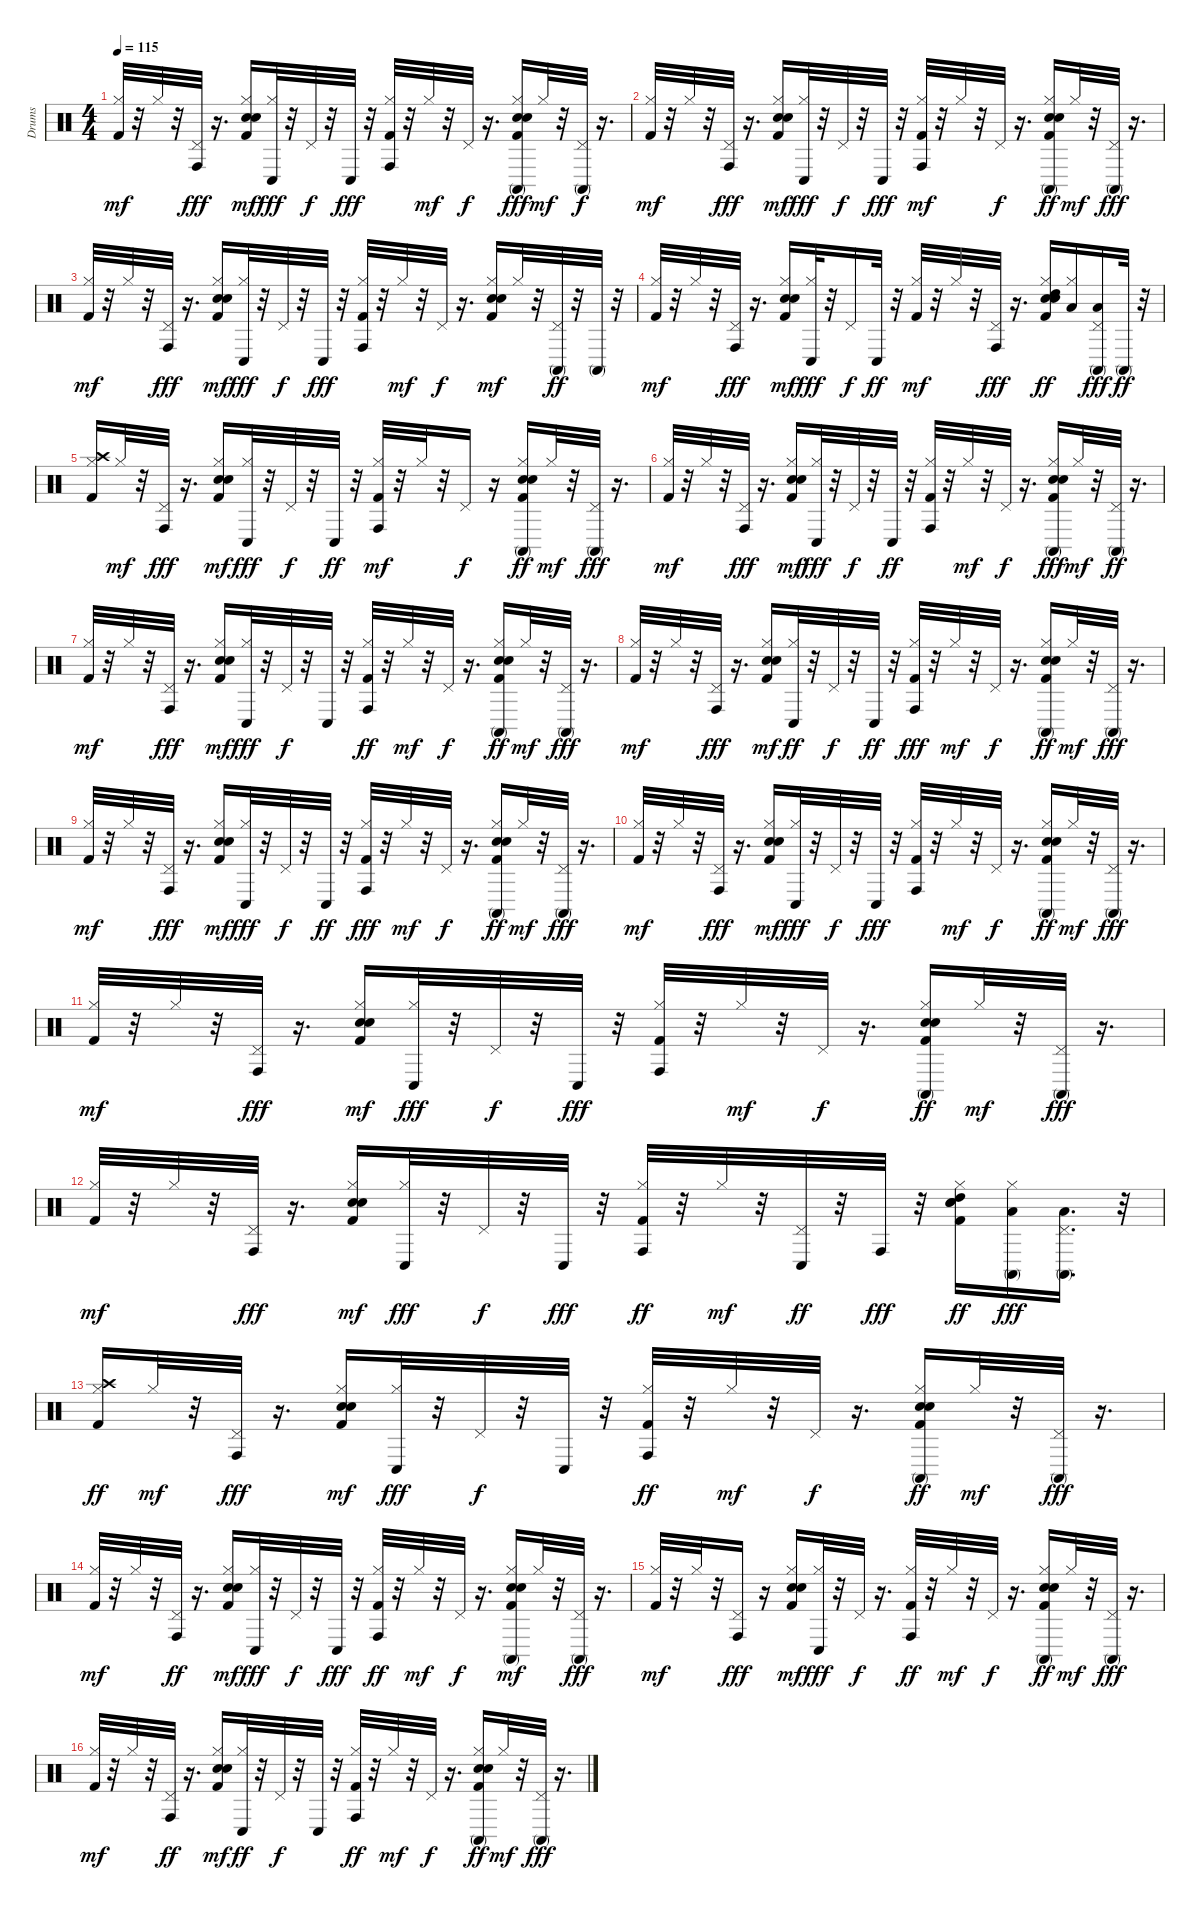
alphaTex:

\track ("Drums" "Drums") {instrument percussion}
\staff {score}
\articulation defaults
\ts (4 4)
\tempo 115
\clef neutral
\ks c
("Kick (hit) 2" "Hi-Hat (closed)").32{dy mf} r.32 "Hi-Hat (closed)".32 r.32 ("Pedal Hi-Hat (hit)" "Conga high (hit)").32{dy fff} r.16{d} ("Kick (hit) 2" "Snare (hit) 2" "Hand Clap (hit)" "Hi-Hat (closed)").16{dy mf} ("Hi-Hat (closed)" "Conga low (hit)").32{dy fff} r.32 "Pedal Hi-Hat (hit)".32{dy f} r.32 "Conga low (hit)".32{dy fff} r.32 ("Kick (hit) 2" "Hi-Hat (closed)" "Conga high (hit)").32 r.32 "Hi-Hat (closed)".32{dy mf} r.32 "Pedal Hi-Hat (hit)".32{dy f} r.16{d} ("Kick (hit) 2" "Snare (hit) 2" "Hand Clap (hit)" "Hi-Hat (closed)" "Conga high (mute)").16{dy fff} "Hi-Hat (closed)".32{dy mf} r.32 ("Pedal Hi-Hat (hit)" "Conga high (mute)").32{dy f} r.16{d} |
("Kick (hit) 2" "Hi-Hat (closed)").32{dy mf} r.32 "Hi-Hat (closed)".32 r.32 ("Pedal Hi-Hat (hit)" "Conga high (hit)").32{dy fff} r.16{d} ("Kick (hit) 2" "Snare (hit) 2" "Hand Clap (hit)" "Hi-Hat (closed)").16{dy mf} ("Hi-Hat (closed)" "Conga low (hit)").32{dy fff} r.32 "Pedal Hi-Hat (hit)".32{dy f} r.32 "Conga low (hit)".32{dy fff} r.32 ("Kick (hit) 2" "Hi-Hat (closed)" "Conga high (hit)").32{dy mf} r.32 "Hi-Hat (closed)".32 r.32 "Pedal Hi-Hat (hit)".32{dy f} r.16{d} ("Kick (hit) 2" "Snare (hit) 2" "Hand Clap (hit)" "Hi-Hat (closed)" "Conga high (mute)").16{dy ff} "Hi-Hat (closed)".32{dy mf} r.32 ("Pedal Hi-Hat (hit)" "Conga high (mute)").32{dy fff} r.16{d} |
("Kick (hit) 2" "Hi-Hat (closed)").32{dy mf} r.32 "Hi-Hat (closed)".32 r.32 ("Pedal Hi-Hat (hit)" "Conga high (hit)").32{dy fff} r.16{d} ("Kick (hit) 2" "Snare (hit) 2" "Hand Clap (hit)" "Hi-Hat (closed)").16{dy mf} ("Hi-Hat (closed)" "Conga low (hit)").32{dy fff} r.32 "Pedal Hi-Hat (hit)".32{dy f} r.32 "Conga low (hit)".32{dy fff} r.32 ("Kick (hit) 2" "Hi-Hat (closed)" "Conga high (hit)").32 r.32 "Hi-Hat (closed)".32{dy mf} r.32 "Pedal Hi-Hat (hit)".32{dy f} r.16{d} ("Kick (hit) 2" "Snare (hit) 2" "Hand Clap (hit)" "Hi-Hat (closed)").16{dy mf} "Hi-Hat (closed)".32 r.32 ("Pedal Hi-Hat (hit)" "Conga high (mute)").32{dy ff} r.32 "Conga high (mute)".32 r.32 |
("Kick (hit) 2" "Hi-Hat (closed)").32{dy mf} r.32 "Hi-Hat (closed)".32 r.32 ("Pedal Hi-Hat (hit)" "Conga high (hit)").32{dy fff} r.16{d} ("Kick (hit) 2" "Snare (hit) 2" "Hand Clap (hit)" "Hi-Hat (closed)").16{dy mf} ("Hi-Hat (closed)" "Conga low (hit)").32{dy fff} r.32 "Pedal Hi-Hat (hit)".16{dy f} "Conga low (hit)".32{dy ff} r.32 ("Kick (hit) 2" "Hi-Hat (closed)").32{dy mf} r.32 "Hi-Hat (closed)".32 r.32 ("Pedal Hi-Hat (hit)" "Conga high (hit)").32{dy fff} r.16{d} ("Kick (hit) 2" "Snare (hit) 2" "Hand Clap (hit)" "Hi-Hat (closed)" "High Tom (hit)").16{dy ff} ("Hi-Hat (closed)" "Low Tom (hit)").16 ("Pedal Hi-Hat (hit)" "Low Floor Tom (hit)" "Conga high (mute)").16{dy fff} "Conga high (mute)".32{dy ff} r.32 |
("Kick (hit) 2" "Hi-Hat (closed)" "Crash high (hit)").16 "Hi-Hat (closed)".32{dy mf} r.32 ("Pedal Hi-Hat (hit)" "Conga high (hit)").32{dy fff} r.16{d} ("Kick (hit) 2" "Snare (hit) 2" "Hand Clap (hit)" "Hi-Hat (closed)").16{dy mf} ("Hi-Hat (closed)" "Conga low (hit)").32{dy fff} r.32 "Pedal Hi-Hat (hit)".32{dy f} r.32 "Conga low (hit)".32{dy ff} r.32 ("Kick (hit) 2" "Hi-Hat (closed)" "Conga high (hit)").32{dy mf} r.32 "Hi-Hat (closed)".32 r.32 "Pedal Hi-Hat (hit)".16{dy f} r.16 ("Kick (hit) 2" "Snare (hit) 2" "Hand Clap (hit)" "Hi-Hat (closed)" "Conga high (mute)").16{dy ff} "Hi-Hat (closed)".32{dy mf} r.32 ("Pedal Hi-Hat (hit)" "Conga high (mute)").32{dy fff} r.16{d} |
("Kick (hit) 2" "Hi-Hat (closed)").32{dy mf} r.32 "Hi-Hat (closed)".32 r.32 ("Pedal Hi-Hat (hit)" "Conga high (hit)").32{dy fff} r.16{d} ("Kick (hit) 2" "Snare (hit) 2" "Hand Clap (hit)" "Hi-Hat (closed)").16{dy mf} ("Hi-Hat (closed)" "Conga low (hit)").32{dy fff} r.32 "Pedal Hi-Hat (hit)".32{dy f} r.32 "Conga low (hit)".32{dy ff} r.32 ("Kick (hit) 2" "Hi-Hat (closed)" "Conga high (hit)").32 r.32 "Hi-Hat (closed)".32{dy mf} r.32 "Pedal Hi-Hat (hit)".32{dy f} r.16{d} ("Kick (hit) 2" "Snare (hit) 2" "Hand Clap (hit)" "Hi-Hat (closed)" "Conga high (mute)").16{dy fff} "Hi-Hat (closed)".32{dy mf} r.32 ("Pedal Hi-Hat (hit)" "Conga high (mute)").32{dy ff} r.16{d} |
("Kick (hit) 2" "Hi-Hat (closed)").32{dy mf} r.32 "Hi-Hat (closed)".32 r.32 ("Pedal Hi-Hat (hit)" "Conga high (hit)").32{dy fff} r.16{d} ("Kick (hit) 2" "Snare (hit) 2" "Hand Clap (hit)" "Hi-Hat (closed)").16{dy mf} ("Hi-Hat (closed)" "Conga low (hit)").32{dy fff} r.32 "Pedal Hi-Hat (hit)".32{dy f} r.32 "Conga low (hit)".32 r.32 ("Kick (hit) 2" "Hi-Hat (closed)" "Conga high (hit)").32{dy ff} r.32 "Hi-Hat (closed)".32{dy mf} r.32 "Pedal Hi-Hat (hit)".32{dy f} r.16{d} ("Kick (hit) 2" "Snare (hit) 2" "Hand Clap (hit)" "Hi-Hat (closed)" "Conga high (mute)").16{dy ff} "Hi-Hat (closed)".32{dy mf} r.32 ("Pedal Hi-Hat (hit)" "Conga high (mute)").32{dy fff} r.16{d} |
("Kick (hit) 2" "Hi-Hat (closed)").32{dy mf} r.32 "Hi-Hat (closed)".32 r.32 ("Pedal Hi-Hat (hit)" "Conga high (hit)").32{dy fff} r.16{d} ("Kick (hit) 2" "Snare (hit) 2" "Hand Clap (hit)" "Hi-Hat (closed)").16{dy mf} ("Hi-Hat (closed)" "Conga low (hit)").32{dy ff} r.32 "Pedal Hi-Hat (hit)".32{dy f} r.32 "Conga low (hit)".32{dy ff} r.32 ("Kick (hit) 2" "Hi-Hat (closed)" "Conga high (hit)").32{dy fff} r.32 "Hi-Hat (closed)".32{dy mf} r.32 "Pedal Hi-Hat (hit)".32{dy f} r.16{d} ("Kick (hit) 2" "Snare (hit) 2" "Hand Clap (hit)" "Hi-Hat (closed)" "Conga high (mute)").16{dy ff} "Hi-Hat (closed)".32{dy mf} r.32 ("Pedal Hi-Hat (hit)" "Conga high (mute)").32{dy fff} r.16{d} |
("Kick (hit) 2" "Hi-Hat (closed)").32{dy mf} r.32 "Hi-Hat (closed)".32 r.32 ("Pedal Hi-Hat (hit)" "Conga high (hit)").32{dy fff} r.16{d} ("Kick (hit) 2" "Snare (hit) 2" "Hand Clap (hit)" "Hi-Hat (closed)").16{dy mf} ("Hi-Hat (closed)" "Conga low (hit)").32{dy fff} r.32 "Pedal Hi-Hat (hit)".32{dy f} r.32 "Conga low (hit)".32{dy ff} r.32 ("Kick (hit) 2" "Hi-Hat (closed)" "Conga high (hit)").32{dy fff} r.32 "Hi-Hat (closed)".32{dy mf} r.32 "Pedal Hi-Hat (hit)".32{dy f} r.16{d} ("Kick (hit) 2" "Snare (hit) 2" "Hand Clap (hit)" "Hi-Hat (closed)" "Conga high (mute)").16{dy ff} "Hi-Hat (closed)".32{dy mf} r.32 ("Pedal Hi-Hat (hit)" "Conga high (mute)").32{dy fff} r.16{d} |
("Kick (hit) 2" "Hi-Hat (closed)").32{dy mf} r.32 "Hi-Hat (closed)".32 r.32 ("Pedal Hi-Hat (hit)" "Conga high (hit)").32{dy fff} r.16{d} ("Kick (hit) 2" "Snare (hit) 2" "Hand Clap (hit)" "Hi-Hat (closed)").16{dy mf} ("Hi-Hat (closed)" "Conga low (hit)").32{dy fff} r.32 "Pedal Hi-Hat (hit)".32{dy f} r.32 "Conga low (hit)".32{dy fff} r.32 ("Kick (hit) 2" "Hi-Hat (closed)" "Conga high (hit)").32 r.32 "Hi-Hat (closed)".32{dy mf} r.32 "Pedal Hi-Hat (hit)".32{dy f} r.16{d} ("Kick (hit) 2" "Snare (hit) 2" "Hand Clap (hit)" "Hi-Hat (closed)" "Conga high (mute)").16{dy ff} "Hi-Hat (closed)".32{dy mf} r.32 ("Pedal Hi-Hat (hit)" "Conga high (mute)").32{dy fff} r.16{d} |
("Kick (hit) 2" "Hi-Hat (closed)").32{dy mf} r.32 "Hi-Hat (closed)".32 r.32 ("Pedal Hi-Hat (hit)" "Conga high (hit)").32{dy fff} r.16{d} ("Kick (hit) 2" "Snare (hit) 2" "Hand Clap (hit)" "Hi-Hat (closed)").16{dy mf} ("Hi-Hat (closed)" "Conga low (hit)").32{dy fff} r.32 "Pedal Hi-Hat (hit)".32{dy f} r.32 "Conga low (hit)".32{dy fff} r.32 ("Kick (hit) 2" "Hi-Hat (closed)" "Conga high (hit)").32 r.32 "Hi-Hat (closed)".32{dy mf} r.32 "Pedal Hi-Hat (hit)".32{dy f} r.16{d} ("Kick (hit) 2" "Snare (hit) 2" "Hand Clap (hit)" "Hi-Hat (closed)" "Conga high (mute)").16{dy ff} "Hi-Hat (closed)".32{dy mf} r.32 ("Pedal Hi-Hat (hit)" "Conga high (mute)").32{dy fff} r.16{d} |
("Kick (hit) 2" "Hi-Hat (closed)").32{dy mf} r.32 "Hi-Hat (closed)".32 r.32 ("Pedal Hi-Hat (hit)" "Conga high (hit)").32{dy fff} r.16{d} ("Kick (hit) 2" "Snare (hit) 2" "Hand Clap (hit)" "Hi-Hat (closed)").16{dy mf} ("Hi-Hat (closed)" "Conga low (hit)").32{dy fff} r.32 "Pedal Hi-Hat (hit)".32{dy f} r.32 "Conga low (hit)".32{dy fff} r.32 ("Kick (hit) 2" "Hi-Hat (closed)" "Conga high (hit)").32{dy ff} r.32 "Hi-Hat (closed)".32{dy mf} r.32 ("Pedal Hi-Hat (hit)" "Conga low (hit)").32{dy ff} r.32 "Conga high (hit)".32{dy fff} r.32 ("Kick (hit) 2" "Snare (hit) 2" "Hand Clap (hit)" "Hi-Hat (closed)" "High Tom (hit)").16{dy ff} ("Hi-Hat (closed)" "Low Tom (hit)" "Conga high (mute)").16{dy fff} ("Pedal Hi-Hat (hit)" "Low Floor Tom (hit)" "Conga high (mute)").16{d} r.32 |
("Kick (hit) 2" "Hi-Hat (closed)" "Crash high (hit)").16{dy ff} "Hi-Hat (closed)".32{dy mf} r.32 ("Pedal Hi-Hat (hit)" "Conga high (hit)").32{dy fff} r.16{d} ("Kick (hit) 2" "Snare (hit) 2" "Hand Clap (hit)" "Hi-Hat (closed)").16{dy mf} ("Hi-Hat (closed)" "Conga low (hit)").32{dy fff} r.32 "Pedal Hi-Hat (hit)".32{dy f} r.32 "Conga low (hit)".32 r.32 ("Kick (hit) 2" "Hi-Hat (closed)" "Conga high (hit)").32{dy ff} r.32 "Hi-Hat (closed)".32{dy mf} r.32 "Pedal Hi-Hat (hit)".32{dy f} r.16{d} ("Kick (hit) 2" "Snare (hit) 2" "Hand Clap (hit)" "Hi-Hat (closed)" "Conga high (mute)").16{dy ff} "Hi-Hat (closed)".32{dy mf} r.32 ("Pedal Hi-Hat (hit)" "Conga high (mute)").32{dy fff} r.16{d} |
("Kick (hit) 2" "Hi-Hat (closed)").32{dy mf} r.32 "Hi-Hat (closed)".32 r.32 ("Pedal Hi-Hat (hit)" "Conga high (hit)").32{dy ff} r.16{d} ("Kick (hit) 2" "Snare (hit) 2" "Hand Clap (hit)" "Hi-Hat (closed)").16{dy mf} ("Hi-Hat (closed)" "Conga low (hit)").32{dy fff} r.32 "Pedal Hi-Hat (hit)".32{dy f} r.32 "Conga low (hit)".32{dy fff} r.32 ("Kick (hit) 2" "Hi-Hat (closed)" "Conga high (hit)").32{dy ff} r.32 "Hi-Hat (closed)".32{dy mf} r.32 "Pedal Hi-Hat (hit)".32{dy f} r.16{d} ("Kick (hit) 2" "Snare (hit) 2" "Hand Clap (hit)" "Hi-Hat (closed)" "Conga high (mute)").16{dy mf} "Hi-Hat (closed)".32 r.32 ("Pedal Hi-Hat (hit)" "Conga high (mute)").32{dy fff} r.16{d} |
("Kick (hit) 2" "Hi-Hat (closed)").32{dy mf} r.32 "Hi-Hat (closed)".32 r.32 ("Pedal Hi-Hat (hit)" "Conga high (hit)").16{dy fff} r.16 ("Kick (hit) 2" "Snare (hit) 2" "Hand Clap (hit)" "Hi-Hat (closed)").16{dy mf} ("Hi-Hat (closed)" "Conga low (hit)").32{dy fff} r.32 "Pedal Hi-Hat (hit)".32{dy f} r.16{d} ("Kick (hit) 2" "Hi-Hat (closed)" "Conga high (hit)").32{dy ff} r.32 "Hi-Hat (closed)".32{dy mf} r.32 "Pedal Hi-Hat (hit)".32{dy f} r.16{d} ("Kick (hit) 2" "Snare (hit) 2" "Hand Clap (hit)" "Hi-Hat (closed)" "Conga high (mute)").16{dy ff} "Hi-Hat (closed)".32{dy mf} r.32 ("Pedal Hi-Hat (hit)" "Conga high (mute)").32{dy fff} r.16{d} |
("Kick (hit) 2" "Hi-Hat (closed)").32{dy mf} r.32 "Hi-Hat (closed)".32 r.32 ("Pedal Hi-Hat (hit)" "Conga high (hit)").32{dy ff} r.16{d} ("Kick (hit) 2" "Snare (hit) 2" "Hand Clap (hit)" "Hi-Hat (closed)").16{dy mf} ("Hi-Hat (closed)" "Conga low (hit)").32{dy ff} r.32 "Pedal Hi-Hat (hit)".32{dy f} r.32 "Conga low (hit)".32 r.32 ("Kick (hit) 2" "Hi-Hat (closed)" "Conga high (hit)").32{dy ff} r.32 "Hi-Hat (closed)".32{dy mf} r.32 "Pedal Hi-Hat (hit)".32{dy f} r.16{d} ("Kick (hit) 2" "Snare (hit) 2" "Hand Clap (hit)" "Hi-Hat (closed)" "Conga high (mute)").16{dy ff} "Hi-Hat (closed)".32{dy mf} r.32 ("Pedal Hi-Hat (hit)" "Conga high (mute)").32{dy fff} r.16{d}
